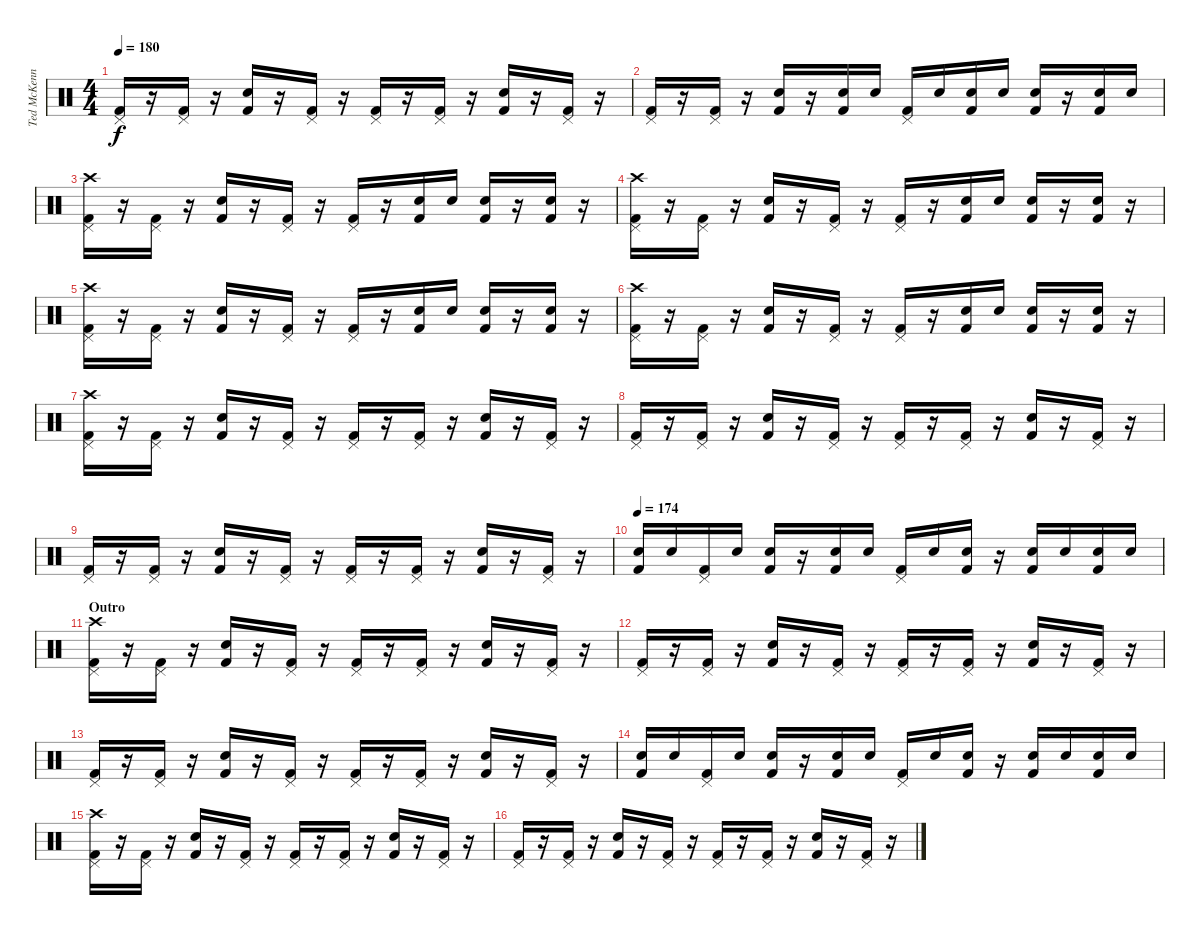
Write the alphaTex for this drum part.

\track ("Ted McKenna" "Ted McKenn") {instrument percussion}
\staff {score}
\articulation defaults
\ts (4 4)
\tempo 180
\clef neutral
\ks c
("Pedal Hi-Hat (hit)" "Kick (hit) 2").16{dy f} r.16 ("Pedal Hi-Hat (hit)" "Kick (hit) 2").16 r.16 ("Snare (hit) 2" "Kick (hit) 2").16 r.16 ("Pedal Hi-Hat (hit)" "Kick (hit) 2").16 r.16 ("Pedal Hi-Hat (hit)" "Kick (hit) 2").16 r.16 ("Pedal Hi-Hat (hit)" "Kick (hit) 2").16 r.16 ("Snare (hit) 2" "Kick (hit) 2").16 r.16 ("Pedal Hi-Hat (hit)" "Kick (hit) 2").16 r.16 |
("Pedal Hi-Hat (hit)" "Kick (hit) 2").16 r.16 ("Pedal Hi-Hat (hit)" "Kick (hit) 2").16 r.16 ("Snare (hit) 2" "Kick (hit) 2").16 r.16 ("Electric Snare (hit)" "Kick (hit) 2").16 "Electric Snare (hit)".16 ("Pedal Hi-Hat (hit)" "Kick (hit) 2").16 "Electric Snare (hit)".16 ("Electric Snare (hit)" "Kick (hit) 2").16 "Electric Snare (hit)".16 ("Snare (hit) 2" "Kick (hit) 2").16 r.16 ("Electric Snare (hit)" "Kick (hit) 2").16 "Electric Snare (hit)".16 |
("Crash high (hit)" "Pedal Hi-Hat (hit)" "Kick (hit) 2").16 r.16 ("Pedal Hi-Hat (hit)" "Kick (hit) 2").16 r.16 ("Snare (hit) 2" "Kick (hit) 2").16 r.16 ("Pedal Hi-Hat (hit)" "Kick (hit) 2").16 r.16 ("Pedal Hi-Hat (hit)" "Kick (hit) 2").16 r.16 ("Electric Snare (hit)" "Kick (hit) 2").16 "Electric Snare (hit)".16 ("Electric Snare (hit)" "Kick (hit) 2").16 r.16 ("Electric Snare (hit)" "Kick (hit) 2").16 r.16 |
("Crash high (hit)" "Pedal Hi-Hat (hit)" "Kick (hit) 2").16 r.16 ("Pedal Hi-Hat (hit)" "Kick (hit) 2").16 r.16 ("Snare (hit) 2" "Kick (hit) 2").16 r.16 ("Pedal Hi-Hat (hit)" "Kick (hit) 2").16 r.16 ("Pedal Hi-Hat (hit)" "Kick (hit) 2").16 r.16 ("Electric Snare (hit)" "Kick (hit) 2").16 "Electric Snare (hit)".16 ("Electric Snare (hit)" "Kick (hit) 2").16 r.16 ("Electric Snare (hit)" "Kick (hit) 2").16 r.16 |
("Crash high (hit)" "Pedal Hi-Hat (hit)" "Kick (hit) 2").16 r.16 ("Pedal Hi-Hat (hit)" "Kick (hit) 2").16 r.16 ("Snare (hit) 2" "Kick (hit) 2").16 r.16 ("Pedal Hi-Hat (hit)" "Kick (hit) 2").16 r.16 ("Pedal Hi-Hat (hit)" "Kick (hit) 2").16 r.16 ("Electric Snare (hit)" "Kick (hit) 2").16 "Electric Snare (hit)".16 ("Electric Snare (hit)" "Kick (hit) 2").16 r.16 ("Electric Snare (hit)" "Kick (hit) 2").16 r.16 |
("Crash high (hit)" "Pedal Hi-Hat (hit)" "Kick (hit) 2").16 r.16 ("Pedal Hi-Hat (hit)" "Kick (hit) 2").16 r.16 ("Snare (hit) 2" "Kick (hit) 2").16 r.16 ("Pedal Hi-Hat (hit)" "Kick (hit) 2").16 r.16 ("Pedal Hi-Hat (hit)" "Kick (hit) 2").16 r.16 ("Electric Snare (hit)" "Kick (hit) 2").16 "Electric Snare (hit)".16 ("Electric Snare (hit)" "Kick (hit) 2").16 r.16 ("Electric Snare (hit)" "Kick (hit) 2").16 r.16 |
("Crash high (hit)" "Pedal Hi-Hat (hit)" "Kick (hit) 2").16 r.16 ("Pedal Hi-Hat (hit)" "Kick (hit) 2").16 r.16 ("Snare (hit) 2" "Kick (hit) 2").16 r.16 ("Pedal Hi-Hat (hit)" "Kick (hit) 2").16 r.16 ("Pedal Hi-Hat (hit)" "Kick (hit) 2").16 r.16 ("Pedal Hi-Hat (hit)" "Kick (hit) 2").16 r.16 ("Snare (hit) 2" "Kick (hit) 2").16 r.16 ("Pedal Hi-Hat (hit)" "Kick (hit) 2").16 r.16 |
("Pedal Hi-Hat (hit)" "Kick (hit) 2").16 r.16 ("Pedal Hi-Hat (hit)" "Kick (hit) 2").16 r.16 ("Snare (hit) 2" "Kick (hit) 2").16 r.16 ("Pedal Hi-Hat (hit)" "Kick (hit) 2").16 r.16 ("Pedal Hi-Hat (hit)" "Kick (hit) 2").16 r.16 ("Pedal Hi-Hat (hit)" "Kick (hit) 2").16 r.16 ("Snare (hit) 2" "Kick (hit) 2").16 r.16 ("Pedal Hi-Hat (hit)" "Kick (hit) 2").16 r.16 |
("Pedal Hi-Hat (hit)" "Kick (hit) 2").16 r.16 ("Pedal Hi-Hat (hit)" "Kick (hit) 2").16 r.16 ("Snare (hit) 2" "Kick (hit) 2").16 r.16 ("Pedal Hi-Hat (hit)" "Kick (hit) 2").16 r.16 ("Pedal Hi-Hat (hit)" "Kick (hit) 2").16 r.16 ("Pedal Hi-Hat (hit)" "Kick (hit) 2").16 r.16 ("Snare (hit) 2" "Kick (hit) 2").16 r.16 ("Pedal Hi-Hat (hit)" "Kick (hit) 2").16 r.16 |
\tempo 174
("Electric Snare (hit)" "Kick (hit) 2").16 "Electric Snare (hit)".16 ("Pedal Hi-Hat (hit)" "Kick (hit) 2").16 "Electric Snare (hit)".16 ("Electric Snare (hit)" "Kick (hit) 2").16 r.16 ("Electric Snare (hit)" "Kick (hit) 2").16 "Electric Snare (hit)".16 ("Pedal Hi-Hat (hit)" "Kick (hit) 2").16 "Electric Snare (hit)".16 ("Electric Snare (hit)" "Kick (hit) 2").16 r.16 ("Electric Snare (hit)" "Kick (hit) 2").16 "Electric Snare (hit)".16 ("Electric Snare (hit)" "Kick (hit) 2").16 "Electric Snare (hit)".16 |
\section ("" "Outro")
("Crash high (hit)" "Pedal Hi-Hat (hit)" "Kick (hit) 2").16 r.16 ("Pedal Hi-Hat (hit)" "Kick (hit) 2").16 r.16 ("Snare (hit) 2" "Kick (hit) 2").16 r.16 ("Pedal Hi-Hat (hit)" "Kick (hit) 2").16 r.16 ("Pedal Hi-Hat (hit)" "Kick (hit) 2").16 r.16 ("Pedal Hi-Hat (hit)" "Kick (hit) 2").16 r.16 ("Snare (hit) 2" "Kick (hit) 2").16 r.16 ("Pedal Hi-Hat (hit)" "Kick (hit) 2").16 r.16 |
("Pedal Hi-Hat (hit)" "Kick (hit) 2").16 r.16 ("Pedal Hi-Hat (hit)" "Kick (hit) 2").16 r.16 ("Snare (hit) 2" "Kick (hit) 2").16 r.16 ("Pedal Hi-Hat (hit)" "Kick (hit) 2").16 r.16 ("Pedal Hi-Hat (hit)" "Kick (hit) 2").16 r.16 ("Pedal Hi-Hat (hit)" "Kick (hit) 2").16 r.16 ("Snare (hit) 2" "Kick (hit) 2").16 r.16 ("Pedal Hi-Hat (hit)" "Kick (hit) 2").16 r.16 |
("Pedal Hi-Hat (hit)" "Kick (hit) 2").16 r.16 ("Pedal Hi-Hat (hit)" "Kick (hit) 2").16 r.16 ("Snare (hit) 2" "Kick (hit) 2").16 r.16 ("Pedal Hi-Hat (hit)" "Kick (hit) 2").16 r.16 ("Pedal Hi-Hat (hit)" "Kick (hit) 2").16 r.16 ("Pedal Hi-Hat (hit)" "Kick (hit) 2").16 r.16 ("Snare (hit) 2" "Kick (hit) 2").16 r.16 ("Pedal Hi-Hat (hit)" "Kick (hit) 2").16 r.16 |
("Electric Snare (hit)" "Kick (hit) 2").16 "Electric Snare (hit)".16 ("Pedal Hi-Hat (hit)" "Kick (hit) 2").16 "Electric Snare (hit)".16 ("Electric Snare (hit)" "Kick (hit) 2").16 r.16 ("Electric Snare (hit)" "Kick (hit) 2").16 "Electric Snare (hit)".16 ("Pedal Hi-Hat (hit)" "Kick (hit) 2").16 "Electric Snare (hit)".16 ("Electric Snare (hit)" "Kick (hit) 2").16 r.16 ("Electric Snare (hit)" "Kick (hit) 2").16 "Electric Snare (hit)".16 ("Electric Snare (hit)" "Kick (hit) 2").16 "Electric Snare (hit)".16 |
("Crash high (hit)" "Pedal Hi-Hat (hit)" "Kick (hit) 2").16 r.16 ("Pedal Hi-Hat (hit)" "Kick (hit) 2").16 r.16 ("Snare (hit) 2" "Kick (hit) 2").16 r.16 ("Pedal Hi-Hat (hit)" "Kick (hit) 2").16 r.16 ("Pedal Hi-Hat (hit)" "Kick (hit) 2").16 r.16 ("Pedal Hi-Hat (hit)" "Kick (hit) 2").16 r.16 ("Snare (hit) 2" "Kick (hit) 2").16 r.16 ("Pedal Hi-Hat (hit)" "Kick (hit) 2").16 r.16 |
("Pedal Hi-Hat (hit)" "Kick (hit) 2").16 r.16 ("Pedal Hi-Hat (hit)" "Kick (hit) 2").16 r.16 ("Snare (hit) 2" "Kick (hit) 2").16 r.16 ("Pedal Hi-Hat (hit)" "Kick (hit) 2").16 r.16 ("Pedal Hi-Hat (hit)" "Kick (hit) 2").16 r.16 ("Pedal Hi-Hat (hit)" "Kick (hit) 2").16 r.16 ("Snare (hit) 2" "Kick (hit) 2").16 r.16 ("Pedal Hi-Hat (hit)" "Kick (hit) 2").16 r.16
